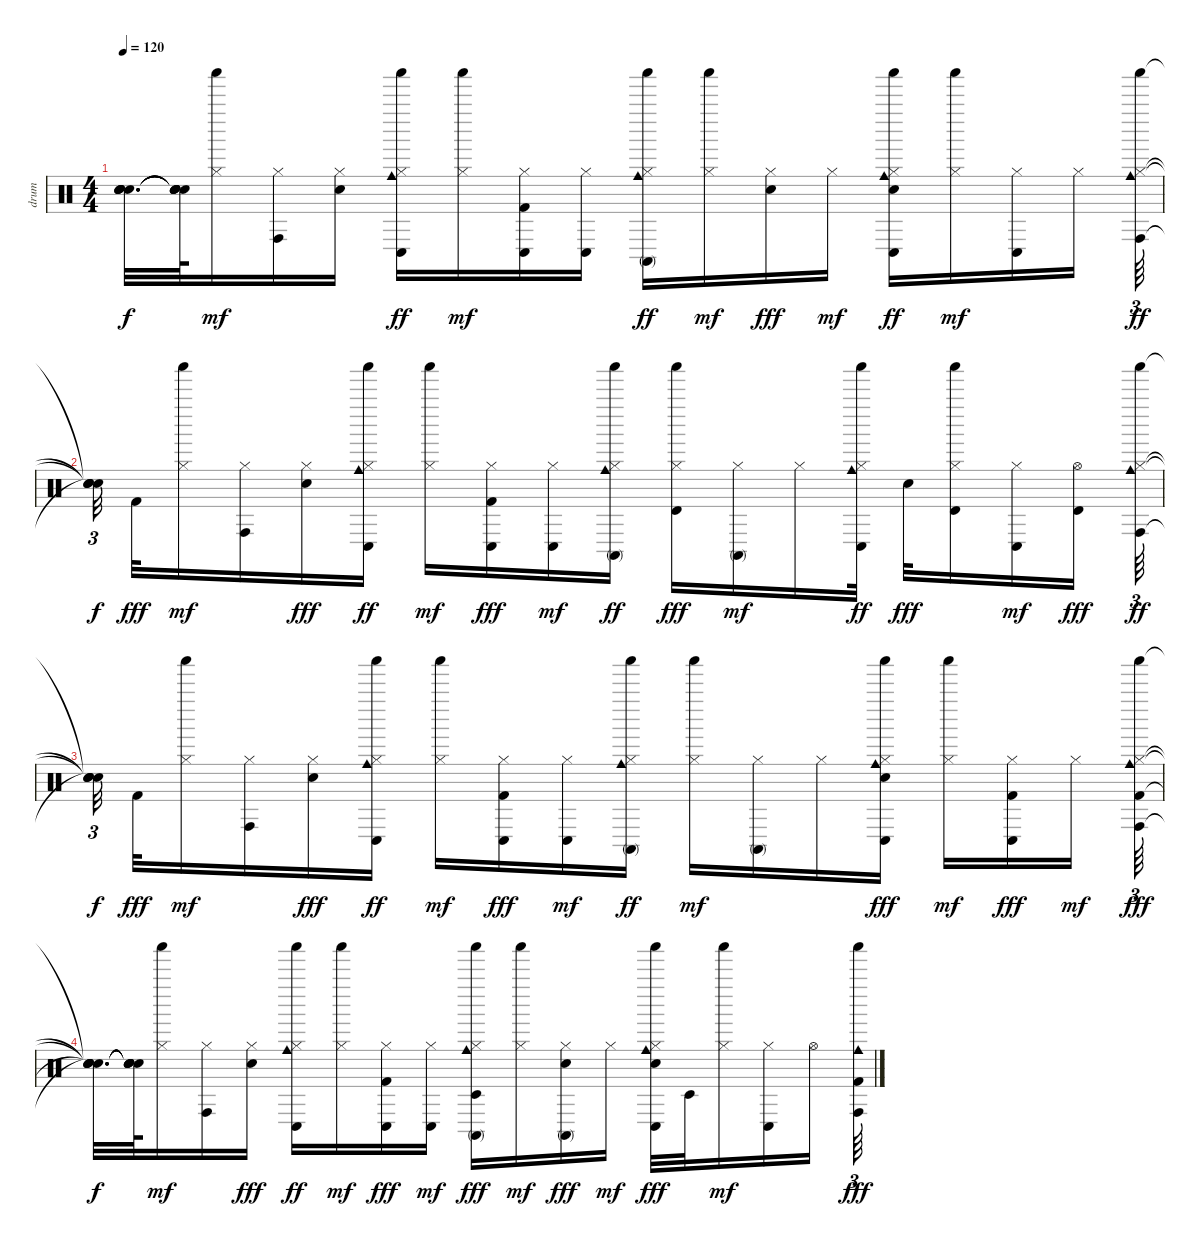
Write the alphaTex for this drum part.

\track ("drum" "drum") {instrument percussion}
\staff {score}
\articulation defaults
\ts (4 4)
\tempo 120
\clef neutral
\ks c
("Snare (hit)"{t} "Snare (hit)"{t} "Snare (hit)"{t} "Snare (hit)"{t} "Snare (hit)"{t}).32{d dy f} ("Snare (hit)"{t} "Snare (hit)"{t} "Snare (hit)"{t} "Snare (hit)"{t} "Snare (hit)"{t}).64 ("Shaker (hit)" "Hi-Hat (closed)").16{dy mf} ("Conga high (hit)" "Hi-Hat (closed)").16 ("Electric Snare (hit)" "Hi-Hat (closed)").16 ("Conga low (hit)" "Cowbell medium (hit)" "Shaker (hit)" "Hi-Hat (closed)").16{dy ff} ("Shaker (hit)" "Hi-Hat (closed)").16{dy mf} ("Conga low (hit)" "Kick (hit) 2" "Hi-Hat (closed)").16 ("Conga low (hit)" "Hi-Hat (closed)").16 ("Conga high (mute)" "Cowbell medium (hit)" "Shaker (hit)" "Hi-Hat (closed)").16{dy ff} ("Shaker (hit)" "Hi-Hat (closed)").16{dy mf} ("Hi-Hat (closed)" "Electric Snare (hit)").16{dy fff} "Hi-Hat (closed)".16{dy mf} ("Conga low (hit)" "Shaker (hit)" "Cowbell medium (hit)" "Electric Snare (hit)" "Hi-Hat (closed)").16{dy ff} ("Shaker (hit)" "Hi-Hat (closed)").16{dy mf} ("Conga low (hit)" "Hi-Hat (closed)").16 "Hi-Hat (closed)".16 ("Conga high (hit)" "Shaker (hit)" "Cowbell medium (hit)" "Hi-Hat (closed)").64{tu (3 2) dy ff} |
("Snare (hit)"{t} "Snare (hit)"{t} "Snare (hit)"{t} "Snare (hit)"{t}).32{tu (3 2) dy f beam splitsecondary} "Kick (hit) 2".32{dy fff} ("Shaker (hit)" "Hi-Hat (closed)").16{dy mf} ("Conga high (hit)" "Hi-Hat (closed)").16 ("Hi-Hat (closed)" "Electric Snare (hit)").16{dy fff} ("Conga low (hit)" "Cowbell medium (hit)" "Shaker (hit)" "Hi-Hat (closed)").16{dy ff} ("Hi-Hat (closed)" "Shaker (hit)").16{dy mf} ("Conga low (hit)" "Hi-Hat (closed)" "Kick (hit) 2").16{dy fff} ("Conga low (hit)" "Hi-Hat (closed)").16{dy mf} ("Conga high (mute)" "Cowbell medium (hit)" "Shaker (hit)" "Hi-Hat (closed)").16{dy ff} ("Shaker (hit)" "Hi-Hat (closed)" "Timbale high (hit)").16{dy fff} ("Conga high (mute)" "Hi-Hat (closed)").16{dy mf} "Hi-Hat (closed)".16 ("Conga low (hit)" "Cowbell medium (hit)" "Shaker (hit)" "Hi-Hat (closed)").32{dy ff} "Electric Snare (hit)".32{dy fff} ("Shaker (hit)" "Hi-Hat (closed)" "Timbale high (hit)").16 ("Conga low (hit)" "Hi-Hat (closed)").16{dy mf} ("Hi-Hat (open)" "Timbale high (hit)").16{dy fff beam splitsecondary} ("Conga high (hit)" "Shaker (hit)" "Cowbell medium (hit)" "Hi-Hat (closed)").64{tu (3 2) dy ff} |
("Snare (hit)"{t} "Snare (hit)"{t} "Snare (hit)"{t} "Snare (hit)"{t}).32{tu (3 2) dy f beam splitsecondary} "Kick (hit) 2".32{dy fff} ("Shaker (hit)" "Hi-Hat (closed)").16{dy mf} ("Hi-Hat (closed)" "Conga high (hit)").16 ("Hi-Hat (closed)" "Electric Snare (hit)").16{dy fff} ("Conga low (hit)" "Cowbell medium (hit)" "Shaker (hit)" "Hi-Hat (closed)").16{dy ff} ("Shaker (hit)" "Hi-Hat (closed)").16{dy mf} ("Conga low (hit)" "Hi-Hat (closed)" "Kick (hit) 2").16{dy fff} ("Conga low (hit)" "Hi-Hat (closed)").16{dy mf} ("Conga high (mute)" "Cowbell medium (hit)" "Shaker (hit)" "Hi-Hat (closed)").16{dy ff} ("Shaker (hit)" "Hi-Hat (closed)").16{dy mf} ("Conga high (mute)" "Hi-Hat (closed)").16 "Hi-Hat (closed)".16 ("Conga low (hit)" "Cowbell medium (hit)" "Shaker (hit)" "Hi-Hat (closed)" "Electric Snare (hit)").16{dy fff} ("Hi-Hat (closed)" "Shaker (hit)").16{dy mf} ("Conga low (hit)" "Hi-Hat (closed)" "Kick (hit) 2").16{dy fff} "Hi-Hat (closed)".16{dy mf beam splitsecondary} ("Conga high (hit)" "Cowbell medium (hit)" "Hi-Hat (closed)" "Shaker (hit)" "Kick (hit) 2").64{tu (3 2) dy fff} |
("Snare (hit)"{t} "Snare (hit)"{t} "Snare (hit)"{t} "Snare (hit)"{t} "Snare (hit)"{t}).32{d dy f} ("Snare (hit)"{t} "Snare (hit)"{t} "Snare (hit)"{t} "Snare (hit)"{t} "Snare (hit)"{t}).64 ("Shaker (hit)" "Hi-Hat (closed)").16{dy mf} ("Conga high (hit)" "Hi-Hat (closed)").16 ("Hi-Hat (closed)" "Electric Snare (hit)").16{dy fff} ("Conga low (hit)" "Shaker (hit)" "Cowbell medium (hit)" "Hi-Hat (closed)").16{dy ff} ("Shaker (hit)" "Hi-Hat (closed)").16{dy mf} ("Conga low (hit)" "Hi-Hat (closed)" "Kick (hit) 2").16{dy fff} ("Conga low (hit)" "Hi-Hat (closed)").16{dy mf} ("Conga high (mute)" "Cowbell medium (hit)" "Shaker (hit)" "Hi-Hat (closed)" "Timbale low (hit)").16{dy fff} ("Shaker (hit)" "Hi-Hat (closed)").16{dy mf} ("Conga high (mute)" "Hi-Hat (closed)" "Electric Snare (hit)").16{dy fff} "Hi-Hat (closed)".16{dy mf} ("Conga low (hit)" "Hi-Hat (closed)" "Shaker (hit)" "Cowbell medium (hit)" "Electric Snare (hit)").32{dy fff} "Timbale low (hit)".32 ("Shaker (hit)" "Hi-Hat (closed)").16{dy mf} ("Conga low (hit)" "Hi-Hat (closed)").16 "Hi-Hat (open)".16 ("Conga high (hit)" "Shaker (hit)" "Cowbell medium (hit)" "Kick (hit) 2").64{tu (3 2) dy fff}
